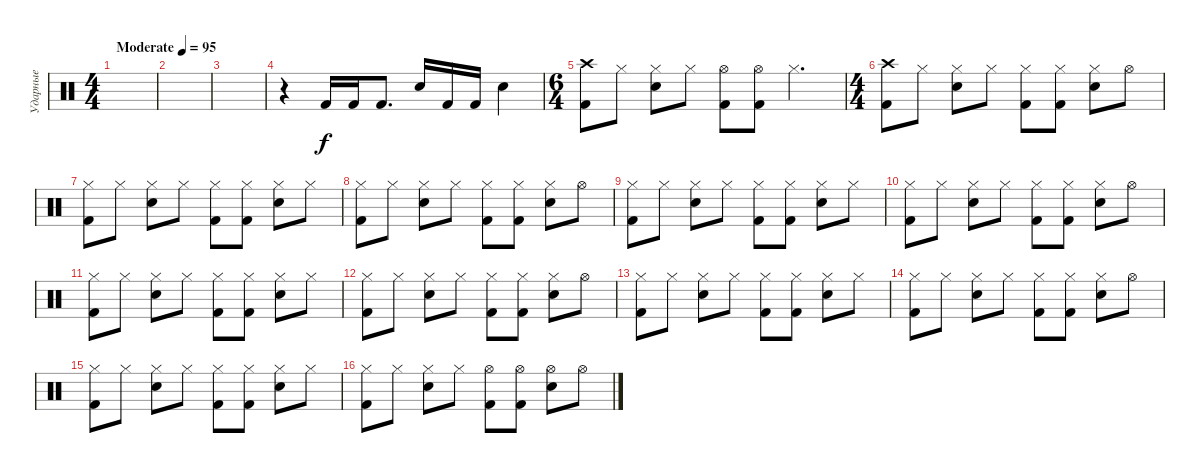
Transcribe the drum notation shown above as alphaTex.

\track ("Ударные" "Ударные") {instrument percussion}
\staff {score}
\articulation defaults
\ts (4 4)
\tempo (95 "Moderate")
\clef neutral
\ks c
|
|
|
r.4 "Kick (hit) 2".16 "Kick (hit) 2".16 "Kick (hit) 2".8{d} "Electric Snare (hit)".16 "Kick (hit) 2".16 "Kick (hit) 2".16 "Electric Snare (hit)".4 |
\ts (6 4)
("Crash high (hit)" "Kick (hit) 2").8 "Hi-Hat (closed)".8 ("Hi-Hat (closed)" "Electric Snare (hit)").8 "Hi-Hat (closed)".8 ("Hi-Hat (open)" "Kick (hit) 2").8 ("Hi-Hat (open)" "Kick (hit) 2").8 "Hi-Hat (closed)".2{d} |
\ts (4 4)
("Crash high (hit)" "Kick (hit) 2").8 "Hi-Hat (closed)".8 ("Hi-Hat (closed)" "Electric Snare (hit)").8 "Hi-Hat (closed)".8 ("Hi-Hat (closed)" "Kick (hit) 2").8 ("Hi-Hat (closed)" "Kick (hit) 2").8 ("Hi-Hat (closed)" "Electric Snare (hit)").8 "Hi-Hat (open)".8 |
("Hi-Hat (closed)" "Kick (hit) 2").8 "Hi-Hat (closed)".8 ("Hi-Hat (closed)" "Electric Snare (hit)").8 "Hi-Hat (closed)".8 ("Hi-Hat (closed)" "Kick (hit) 2").8 ("Hi-Hat (closed)" "Kick (hit) 2").8 ("Hi-Hat (closed)" "Electric Snare (hit)").8 "Hi-Hat (closed)".8 |
("Hi-Hat (closed)" "Kick (hit) 2").8 "Hi-Hat (closed)".8 ("Hi-Hat (closed)" "Electric Snare (hit)").8 "Hi-Hat (closed)".8 ("Hi-Hat (closed)" "Kick (hit) 2").8 ("Hi-Hat (closed)" "Kick (hit) 2").8 ("Hi-Hat (closed)" "Electric Snare (hit)").8 "Hi-Hat (open)".8 |
("Hi-Hat (closed)" "Kick (hit) 2").8 "Hi-Hat (closed)".8 ("Hi-Hat (closed)" "Electric Snare (hit)").8 "Hi-Hat (closed)".8 ("Hi-Hat (closed)" "Kick (hit) 2").8 ("Hi-Hat (closed)" "Kick (hit) 2").8 ("Hi-Hat (closed)" "Electric Snare (hit)").8 "Hi-Hat (closed)".8 |
("Hi-Hat (closed)" "Kick (hit) 2").8 "Hi-Hat (closed)".8 ("Hi-Hat (closed)" "Electric Snare (hit)").8 "Hi-Hat (closed)".8 ("Hi-Hat (closed)" "Kick (hit) 2").8 ("Hi-Hat (closed)" "Kick (hit) 2").8 ("Hi-Hat (closed)" "Electric Snare (hit)").8 "Hi-Hat (open)".8 |
("Hi-Hat (closed)" "Kick (hit) 2").8 "Hi-Hat (closed)".8 ("Hi-Hat (closed)" "Electric Snare (hit)").8 "Hi-Hat (closed)".8 ("Hi-Hat (closed)" "Kick (hit) 2").8 ("Hi-Hat (closed)" "Kick (hit) 2").8 ("Hi-Hat (closed)" "Electric Snare (hit)").8 "Hi-Hat (closed)".8 |
("Hi-Hat (closed)" "Kick (hit) 2").8 "Hi-Hat (closed)".8 ("Hi-Hat (closed)" "Electric Snare (hit)").8 "Hi-Hat (closed)".8 ("Hi-Hat (closed)" "Kick (hit) 2").8 ("Hi-Hat (closed)" "Kick (hit) 2").8 ("Hi-Hat (closed)" "Electric Snare (hit)").8 "Hi-Hat (open)".8 |
("Hi-Hat (closed)" "Kick (hit) 2").8 "Hi-Hat (closed)".8 ("Hi-Hat (closed)" "Electric Snare (hit)").8 "Hi-Hat (closed)".8 ("Hi-Hat (closed)" "Kick (hit) 2").8 ("Hi-Hat (closed)" "Kick (hit) 2").8 ("Hi-Hat (closed)" "Electric Snare (hit)").8 "Hi-Hat (closed)".8 |
("Hi-Hat (closed)" "Kick (hit) 2").8 "Hi-Hat (closed)".8 ("Hi-Hat (closed)" "Electric Snare (hit)").8 "Hi-Hat (closed)".8 ("Hi-Hat (closed)" "Kick (hit) 2").8 ("Hi-Hat (closed)" "Kick (hit) 2").8 ("Hi-Hat (closed)" "Electric Snare (hit)").8 "Hi-Hat (open)".8 |
("Hi-Hat (closed)" "Kick (hit) 2").8 "Hi-Hat (closed)".8 ("Hi-Hat (closed)" "Electric Snare (hit)").8 "Hi-Hat (closed)".8 ("Hi-Hat (closed)" "Kick (hit) 2").8 ("Hi-Hat (closed)" "Kick (hit) 2").8 ("Hi-Hat (closed)" "Electric Snare (hit)").8 "Hi-Hat (closed)".8 |
("Hi-Hat (closed)" "Kick (hit) 2").8 "Hi-Hat (closed)".8 ("Hi-Hat (closed)" "Electric Snare (hit)").8 "Hi-Hat (closed)".8 ("Hi-Hat (open)" "Kick (hit) 2").8 ("Hi-Hat (open)" "Kick (hit) 2").8 ("Hi-Hat (open)" "Electric Snare (hit)").8 "Hi-Hat (open)".8
